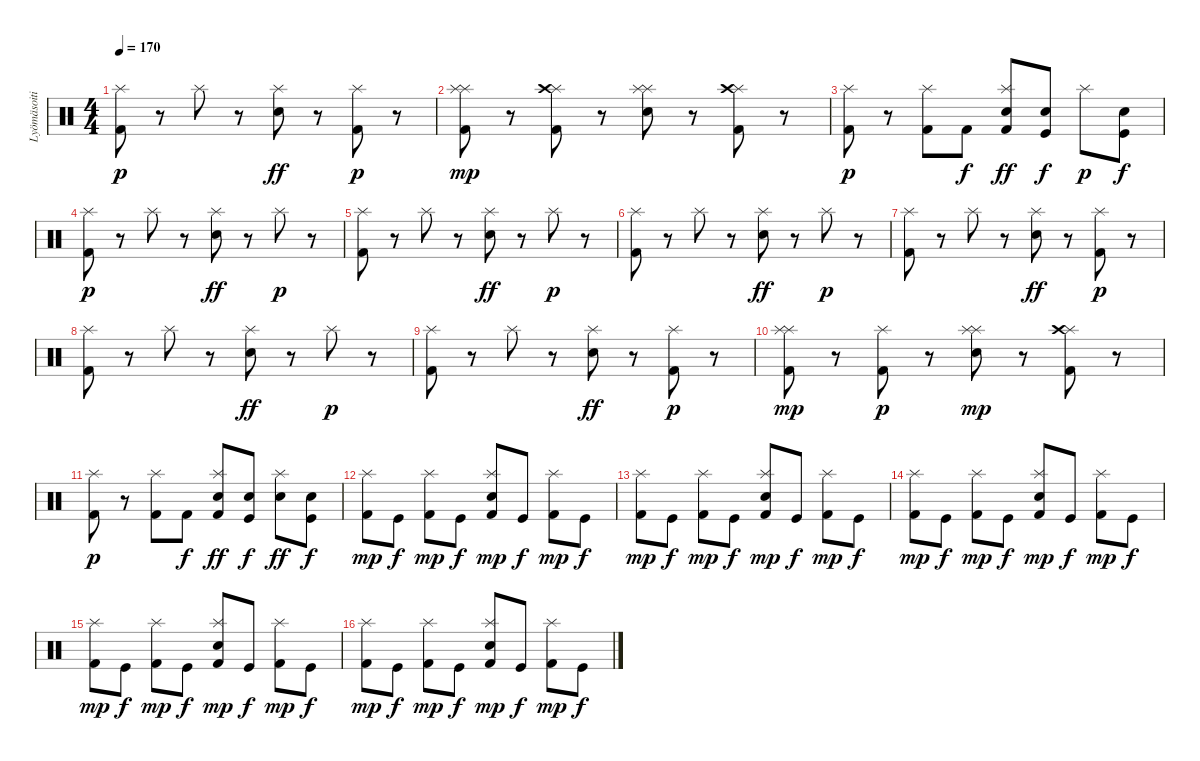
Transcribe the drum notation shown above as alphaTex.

\track ("Lyömäsoitin" "Lyömäsoiti") {instrument percussion}
\staff {score}
\articulation defaults
\ts (4 4)
\tempo 170
\clef neutral
\ks c
("Kick (hit) 2" "Splash (hit)").8{dy p} r.8 "Splash (hit)".8 r.8 ("Splash (hit)" "Electric Snare (hit)").8{dy ff} r.8 ("Kick (hit) 2" "Splash (hit)").8{dy p} r.8 |
("Kick (hit) 2" "Splash (hit)" "Splash (hit)").8{dy mp} r.8 ("Kick (hit) 2" "Splash (hit)" "Crash high (hit)").8 r.8 ("Splash (hit)" "Electric Snare (hit)" "Splash (hit)").8 r.8 ("Kick (hit) 2" "Splash (hit)" "Crash high (hit)").8 r.8 |
("Kick (hit) 2" "Splash (hit)").8{dy p} r.8 ("Kick (hit) 2" "Splash (hit)").8 "Kick (hit) 2".8{dy f} ("Kick (hit) 2" "Splash (hit)" "Electric Snare (hit)").8{dy ff} ("Kick (hit)" "Snare (hit) 2").8{dy f} "Splash (hit)".8{dy p} ("Kick (hit)" "Snare (hit) 2").8{dy f} |
("Kick (hit) 2" "Splash (hit)").8{dy p} r.8 "Splash (hit)".8 r.8 ("Splash (hit)" "Electric Snare (hit)").8{dy ff} r.8 "Splash (hit)".8{dy p} r.8 |
("Kick (hit) 2" "Splash (hit)").8 r.8 "Splash (hit)".8 r.8 ("Splash (hit)" "Electric Snare (hit)").8{dy ff} r.8 "Splash (hit)".8{dy p} r.8 |
("Kick (hit) 2" "Splash (hit)").8 r.8 "Splash (hit)".8 r.8 ("Splash (hit)" "Electric Snare (hit)").8{dy ff} r.8 "Splash (hit)".8{dy p} r.8 |
("Kick (hit) 2" "Splash (hit)").8 r.8 "Splash (hit)".8 r.8 ("Splash (hit)" "Electric Snare (hit)").8{dy ff} r.8 ("Kick (hit) 2" "Splash (hit)").8{dy p} r.8 |
("Kick (hit) 2" "Splash (hit)").8 r.8 "Splash (hit)".8 r.8 ("Splash (hit)" "Electric Snare (hit)").8{dy ff} r.8 "Splash (hit)".8{dy p} r.8 |
("Kick (hit) 2" "Splash (hit)").8 r.8 "Splash (hit)".8 r.8 ("Splash (hit)" "Electric Snare (hit)").8{dy ff} r.8 ("Kick (hit) 2" "Splash (hit)").8{dy p} r.8 |
("Kick (hit) 2" "Splash (hit)" "Splash (hit)").8{dy mp} r.8 ("Kick (hit) 2" "Splash (hit)").8{dy p} r.8 ("Splash (hit)" "Electric Snare (hit)" "Splash (hit)").8{dy mp} r.8 ("Kick (hit) 2" "Splash (hit)" "Crash high (hit)").8 r.8 |
("Kick (hit) 2" "Splash (hit)").8{dy p} r.8 ("Kick (hit) 2" "Splash (hit)").8 "Kick (hit) 2".8{dy f} ("Kick (hit) 2" "Splash (hit)" "Electric Snare (hit)").8{dy ff} ("Kick (hit)" "Electric Snare (hit)").8{dy f} ("Splash (hit)" "Electric Snare (hit)").8{dy ff} ("Kick (hit)" "Electric Snare (hit)").8{dy f} |
("Kick (hit) 2" "Splash (hit)").8{dy mp} "Kick (hit)".8{dy f} ("Kick (hit) 2" "Splash (hit)").8{dy mp} "Kick (hit)".8{dy f} ("Kick (hit) 2" "Splash (hit)" "Electric Snare (hit)").8{dy mp} "Kick (hit)".8{dy f} ("Kick (hit) 2" "Splash (hit)").8{dy mp} "Kick (hit)".8{dy f} |
("Kick (hit) 2" "Splash (hit)").8{dy mp} "Kick (hit)".8{dy f} ("Kick (hit) 2" "Splash (hit)").8{dy mp} "Kick (hit)".8{dy f} ("Kick (hit) 2" "Splash (hit)" "Electric Snare (hit)").8{dy mp} "Kick (hit)".8{dy f} ("Kick (hit) 2" "Splash (hit)").8{dy mp} "Kick (hit)".8{dy f} |
("Kick (hit) 2" "Splash (hit)").8{dy mp} "Kick (hit)".8{dy f} ("Kick (hit) 2" "Splash (hit)").8{dy mp} "Kick (hit)".8{dy f} ("Kick (hit) 2" "Splash (hit)" "Electric Snare (hit)").8{dy mp} "Kick (hit)".8{dy f} ("Kick (hit) 2" "Splash (hit)").8{dy mp} "Kick (hit)".8{dy f} |
("Kick (hit) 2" "Splash (hit)").8{dy mp} "Kick (hit)".8{dy f} ("Kick (hit) 2" "Splash (hit)").8{dy mp} "Kick (hit)".8{dy f} ("Kick (hit) 2" "Splash (hit)" "Electric Snare (hit)").8{dy mp} "Kick (hit)".8{dy f} ("Kick (hit) 2" "Splash (hit)").8{dy mp} "Kick (hit)".8{dy f} |
("Kick (hit) 2" "Splash (hit)").8{dy mp} "Kick (hit)".8{dy f} ("Kick (hit) 2" "Splash (hit)").8{dy mp} "Kick (hit)".8{dy f} ("Kick (hit) 2" "Splash (hit)" "Electric Snare (hit)").8{dy mp} "Kick (hit)".8{dy f} ("Kick (hit) 2" "Splash (hit)").8{dy mp} "Kick (hit)".8{dy f}
